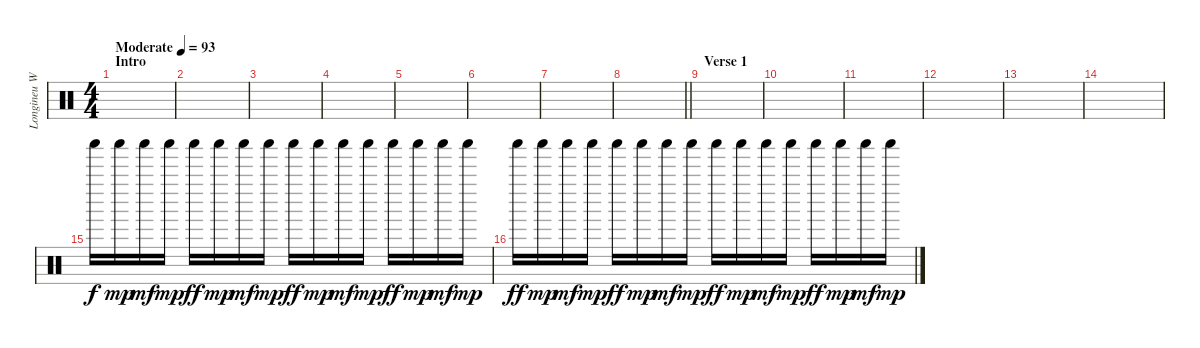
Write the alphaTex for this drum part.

\track ("Longineu W. Parsons |||" "Longineu W") {instrument percussion}
\staff {score}
\articulation defaults
\ts (4 4)
\section ("" "Intro")
\tempo (93 "Moderate")
\clef neutral
\ks c
|
|
|
|
|
|
|
\barLineRight lightlight
|
\section ("" "Verse 1")
|
|
|
|
|
|
"Shaker (hit)".16 "Shaker (hit)".16{dy mp} "Shaker (hit)".16{dy mf} "Shaker (hit)".16{dy mp} "Shaker (hit)".16{dy ff} "Shaker (hit)".16{dy mp} "Shaker (hit)".16{dy mf} "Shaker (hit)".16{dy mp} "Shaker (hit)".16{dy ff} "Shaker (hit)".16{dy mp} "Shaker (hit)".16{dy mf} "Shaker (hit)".16{dy mp} "Shaker (hit)".16{dy ff} "Shaker (hit)".16{dy mp} "Shaker (hit)".16{dy mf} "Shaker (hit)".16{dy mp} |
"Shaker (hit)".16{dy ff} "Shaker (hit)".16{dy mp} "Shaker (hit)".16{dy mf} "Shaker (hit)".16{dy mp} "Shaker (hit)".16{dy ff} "Shaker (hit)".16{dy mp} "Shaker (hit)".16{dy mf} "Shaker (hit)".16{dy mp} "Shaker (hit)".16{dy ff} "Shaker (hit)".16{dy mp} "Shaker (hit)".16{dy mf} "Shaker (hit)".16{dy mp} "Shaker (hit)".16{dy ff} "Shaker (hit)".16{dy mp} "Shaker (hit)".16{dy mf} "Shaker (hit)".16{dy mp}
